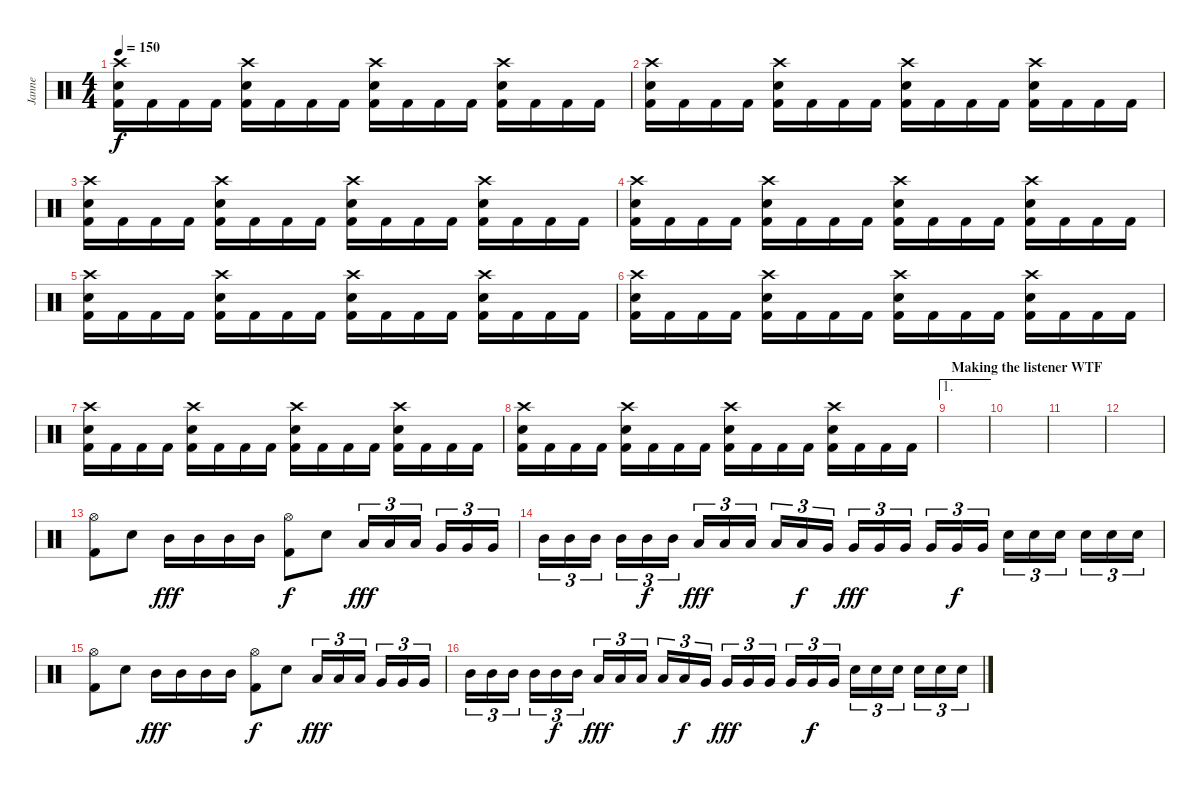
\track ("Janne" "Janne") {instrument percussion}
\staff {score}
\articulation defaults
\ts (4 4)
\tempo 150
\clef neutral
\ks c
("Crash high (hit)" "Electric Snare (hit)" "Kick (hit) 2").16{dy f} "Kick (hit) 2".16 "Kick (hit) 2".16 "Kick (hit) 2".16 ("Crash high (hit)" "Electric Snare (hit)" "Kick (hit) 2").16 "Kick (hit) 2".16 "Kick (hit) 2".16 "Kick (hit) 2".16 ("Crash high (hit)" "Electric Snare (hit)" "Kick (hit) 2").16 "Kick (hit) 2".16 "Kick (hit) 2".16 "Kick (hit) 2".16 ("Crash high (hit)" "Electric Snare (hit)" "Kick (hit) 2").16 "Kick (hit) 2".16 "Kick (hit) 2".16 "Kick (hit) 2".16 |
("Crash high (hit)" "Electric Snare (hit)" "Kick (hit) 2").16 "Kick (hit) 2".16 "Kick (hit) 2".16 "Kick (hit) 2".16 ("Crash high (hit)" "Electric Snare (hit)" "Kick (hit) 2").16 "Kick (hit) 2".16 "Kick (hit) 2".16 "Kick (hit) 2".16 ("Crash high (hit)" "Electric Snare (hit)" "Kick (hit) 2").16 "Kick (hit) 2".16 "Kick (hit) 2".16 "Kick (hit) 2".16 ("Crash high (hit)" "Electric Snare (hit)" "Kick (hit) 2").16 "Kick (hit) 2".16 "Kick (hit) 2".16 "Kick (hit) 2".16 |
("Crash high (hit)" "Electric Snare (hit)" "Kick (hit) 2").16 "Kick (hit) 2".16 "Kick (hit) 2".16 "Kick (hit) 2".16 ("Crash high (hit)" "Electric Snare (hit)" "Kick (hit) 2").16 "Kick (hit) 2".16 "Kick (hit) 2".16 "Kick (hit) 2".16 ("Crash high (hit)" "Electric Snare (hit)" "Kick (hit) 2").16 "Kick (hit) 2".16 "Kick (hit) 2".16 "Kick (hit) 2".16 ("Crash high (hit)" "Electric Snare (hit)" "Kick (hit) 2").16 "Kick (hit) 2".16 "Kick (hit) 2".16 "Kick (hit) 2".16 |
("Crash high (hit)" "Electric Snare (hit)" "Kick (hit) 2").16 "Kick (hit) 2".16 "Kick (hit) 2".16 "Kick (hit) 2".16 ("Crash high (hit)" "Electric Snare (hit)" "Kick (hit) 2").16 "Kick (hit) 2".16 "Kick (hit) 2".16 "Kick (hit) 2".16 ("Crash high (hit)" "Electric Snare (hit)" "Kick (hit) 2").16 "Kick (hit) 2".16 "Kick (hit) 2".16 "Kick (hit) 2".16 ("Crash high (hit)" "Electric Snare (hit)" "Kick (hit) 2").16 "Kick (hit) 2".16 "Kick (hit) 2".16 "Kick (hit) 2".16 |
("Crash high (hit)" "Electric Snare (hit)" "Kick (hit) 2").16 "Kick (hit) 2".16 "Kick (hit) 2".16 "Kick (hit) 2".16 ("Crash high (hit)" "Electric Snare (hit)" "Kick (hit) 2").16 "Kick (hit) 2".16 "Kick (hit) 2".16 "Kick (hit) 2".16 ("Crash high (hit)" "Electric Snare (hit)" "Kick (hit) 2").16 "Kick (hit) 2".16 "Kick (hit) 2".16 "Kick (hit) 2".16 ("Crash high (hit)" "Electric Snare (hit)" "Kick (hit) 2").16 "Kick (hit) 2".16 "Kick (hit) 2".16 "Kick (hit) 2".16 |
("Crash high (hit)" "Electric Snare (hit)" "Kick (hit) 2").16 "Kick (hit) 2".16 "Kick (hit) 2".16 "Kick (hit) 2".16 ("Crash high (hit)" "Electric Snare (hit)" "Kick (hit) 2").16 "Kick (hit) 2".16 "Kick (hit) 2".16 "Kick (hit) 2".16 ("Crash high (hit)" "Electric Snare (hit)" "Kick (hit) 2").16 "Kick (hit) 2".16 "Kick (hit) 2".16 "Kick (hit) 2".16 ("Crash high (hit)" "Electric Snare (hit)" "Kick (hit) 2").16 "Kick (hit) 2".16 "Kick (hit) 2".16 "Kick (hit) 2".16 |
("Crash high (hit)" "Electric Snare (hit)" "Kick (hit) 2").16 "Kick (hit) 2".16 "Kick (hit) 2".16 "Kick (hit) 2".16 ("Crash high (hit)" "Electric Snare (hit)" "Kick (hit) 2").16 "Kick (hit) 2".16 "Kick (hit) 2".16 "Kick (hit) 2".16 ("Crash high (hit)" "Electric Snare (hit)" "Kick (hit) 2").16 "Kick (hit) 2".16 "Kick (hit) 2".16 "Kick (hit) 2".16 ("Crash high (hit)" "Electric Snare (hit)" "Kick (hit) 2").16 "Kick (hit) 2".16 "Kick (hit) 2".16 "Kick (hit) 2".16 |
("Crash high (hit)" "Electric Snare (hit)" "Kick (hit) 2").16 "Kick (hit) 2".16 "Kick (hit) 2".16 "Kick (hit) 2".16 ("Crash high (hit)" "Electric Snare (hit)" "Kick (hit) 2").16 "Kick (hit) 2".16 "Kick (hit) 2".16 "Kick (hit) 2".16 ("Crash high (hit)" "Electric Snare (hit)" "Kick (hit) 2").16 "Kick (hit) 2".16 "Kick (hit) 2".16 "Kick (hit) 2".16 ("Crash high (hit)" "Electric Snare (hit)" "Kick (hit) 2").16 "Kick (hit) 2".16 "Kick (hit) 2".16 "Kick (hit) 2".16 |
\ae 1
\section ("" "Making the listener WTF")
|
|
|
|
("Hi-Hat (open)" "Kick (hit) 2").8 "Electric Snare (hit)".8 "Mid Tom (hit)".16{dy fff} "Mid Tom (hit)".16 "Mid Tom (hit)".16 "Mid Tom (hit)".16 ("Hi-Hat (open)" "Kick (hit) 2").8{dy f} "Electric Snare (hit)".8 "Low Tom (hit)".16{tu (3 2) dy fff} "Low Tom (hit)".16{tu (3 2)} "Low Tom (hit)".16{tu (3 2)} "Very Low Tom (hit)".16{tu (3 2)} "Very Low Tom (hit)".16{tu (3 2)} "Very Low Tom (hit)".16{tu (3 2)} |
"Mid Tom (hit)".16{tu (3 2)} "Mid Tom (hit)".16{tu (3 2)} "Mid Tom (hit)".16{tu (3 2)} "Mid Tom (hit)".16{tu (3 2)} "Mid Tom (hit)".16{tu (3 2) dy f} "Mid Tom (hit)".16{tu (3 2)} "Low Tom (hit)".16{tu (3 2) dy fff} "Low Tom (hit)".16{tu (3 2)} "Low Tom (hit)".16{tu (3 2)} "Low Tom (hit)".16{tu (3 2)} "Low Tom (hit)".16{tu (3 2) dy f} "Very Low Tom (hit)".16{tu (3 2)} "Very Low Tom (hit)".16{tu (3 2) dy fff} "Very Low Tom (hit)".16{tu (3 2)} "Very Low Tom (hit)".16{tu (3 2)} "Very Low Tom (hit)".16{tu (3 2)} "Very Low Tom (hit)".16{tu (3 2) dy f} "Very Low Tom (hit)".16{tu (3 2)} "Electric Snare (hit)".16{tu (3 2)} "Electric Snare (hit)".16{tu (3 2)} "Electric Snare (hit)".16{tu (3 2)} "Electric Snare (hit)".16{tu (3 2)} "Electric Snare (hit)".16{tu (3 2)} "Electric Snare (hit)".16{tu (3 2)} |
("Hi-Hat (open)" "Kick (hit) 2").8 "Electric Snare (hit)".8 "Mid Tom (hit)".16{dy fff} "Mid Tom (hit)".16 "Mid Tom (hit)".16 "Mid Tom (hit)".16 ("Hi-Hat (open)" "Kick (hit) 2").8{dy f} "Electric Snare (hit)".8 "Low Tom (hit)".16{tu (3 2) dy fff} "Low Tom (hit)".16{tu (3 2)} "Low Tom (hit)".16{tu (3 2)} "Very Low Tom (hit)".16{tu (3 2)} "Very Low Tom (hit)".16{tu (3 2)} "Very Low Tom (hit)".16{tu (3 2)} |
"Mid Tom (hit)".16{tu (3 2)} "Mid Tom (hit)".16{tu (3 2)} "Mid Tom (hit)".16{tu (3 2)} "Mid Tom (hit)".16{tu (3 2)} "Mid Tom (hit)".16{tu (3 2) dy f} "Mid Tom (hit)".16{tu (3 2)} "Low Tom (hit)".16{tu (3 2) dy fff} "Low Tom (hit)".16{tu (3 2)} "Low Tom (hit)".16{tu (3 2)} "Low Tom (hit)".16{tu (3 2)} "Low Tom (hit)".16{tu (3 2) dy f} "Very Low Tom (hit)".16{tu (3 2)} "Very Low Tom (hit)".16{tu (3 2) dy fff} "Very Low Tom (hit)".16{tu (3 2)} "Very Low Tom (hit)".16{tu (3 2)} "Very Low Tom (hit)".16{tu (3 2)} "Very Low Tom (hit)".16{tu (3 2) dy f} "Very Low Tom (hit)".16{tu (3 2)} "Electric Snare (hit)".16{tu (3 2)} "Electric Snare (hit)".16{tu (3 2)} "Electric Snare (hit)".16{tu (3 2)} "Electric Snare (hit)".16{tu (3 2)} "Electric Snare (hit)".16{tu (3 2)} "Electric Snare (hit)".16{tu (3 2)}
